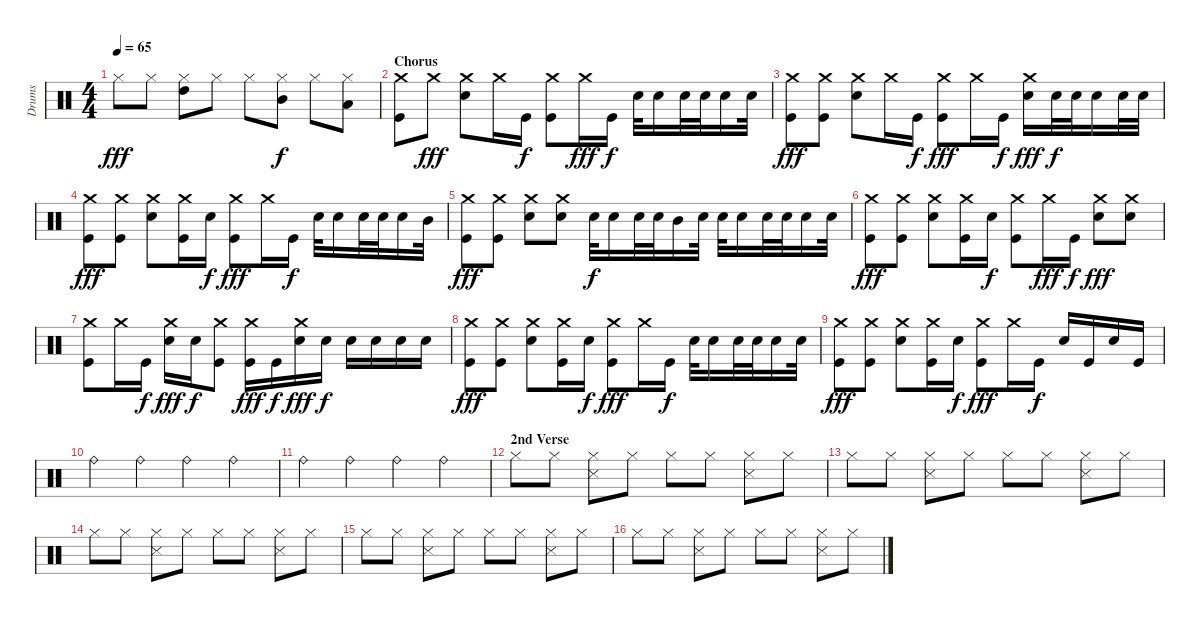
\track ("Drums" "Drums") {instrument percussion}
\staff {score}
\articulation defaults
\ts (4 4)
\tempo 65
\clef neutral
\ks c "Hi-Hat (closed)".8{dy fff} "Hi-Hat (closed)".8
("Hi-Hat (closed)" "High Tom (hit)").8 "Hi-Hat (closed)".8 "Hi-Hat (closed)".8 ("Hi-Hat (closed)" "Mid Tom (hit)").8{dy f} "Hi-Hat (closed)".8 ("Hi-Hat (closed)" "Low Tom (hit)").8 |
\section ("" "Chorus")
("Crash medium (hit)" "Kick (hit)").8 "Crash medium (hit)".8{dy fff} ("Crash medium (hit)" "Electric Snare (hit)").8 "Crash medium (hit)".16 "Kick (hit)".16{dy f} ("Crash medium (hit)" "Kick (hit)").8 "Crash medium (hit)".16{dy fff} "Kick (hit)".16{dy f} "Electric Snare (hit)".32 "Electric Snare (hit)".16 "Electric Snare (hit)".32 "Electric Snare (hit)".32 "Electric Snare (hit)".16 "Electric Snare (hit)".32 |
("Crash medium (hit)" "Kick (hit)").8{dy fff} ("Crash medium (hit)" "Kick (hit)").8 ("Crash medium (hit)" "Electric Snare (hit)").8 "Crash medium (hit)".16 "Kick (hit)".16{dy f} ("Crash medium (hit)" "Kick (hit)").8{dy fff} "Crash medium (hit)".16 "Kick (hit)".16{dy f} ("Crash medium (hit)" "Electric Snare (hit)").16{dy fff} "Electric Snare (hit)".32{dy f} "Electric Snare (hit)".32 "Electric Snare (hit)".16 "Electric Snare (hit)".32 "Electric Snare (hit)".32 |
("Crash medium (hit)" "Kick (hit)").8{dy fff} ("Crash medium (hit)" "Kick (hit)").8 ("Crash medium (hit)" "Electric Snare (hit)").8 ("Crash medium (hit)" "Kick (hit)").16 "Electric Snare (hit)".16{dy f} ("Crash medium (hit)" "Kick (hit)").8{dy fff} "Crash medium (hit)".16 "Kick (hit)".16{dy f} "Electric Snare (hit)".32 "Electric Snare (hit)".16 "Electric Snare (hit)".32 "Electric Snare (hit)".32 "Electric Snare (hit)".16 "Mid Tom (hit)".32 |
("Crash medium (hit)" "Kick (hit)").8{dy fff} ("Crash medium (hit)" "Kick (hit)").8 ("Crash medium (hit)" "Electric Snare (hit)").8 ("Crash medium (hit)" "Electric Snare (hit)").8 "Electric Snare (hit)".32{dy f} "Electric Snare (hit)".16 "Electric Snare (hit)".32 "Electric Snare (hit)".32 "Mid Tom (hit)".16 "Electric Snare (hit)".32 "Electric Snare (hit)".32 "Electric Snare (hit)".16 "Electric Snare (hit)".32 "Electric Snare (hit)".32 "Electric Snare (hit)".16 "Electric Snare (hit)".32 |
("Crash medium (hit)" "Kick (hit)").8{dy fff} ("Crash medium (hit)" "Kick (hit)").8 ("Crash medium (hit)" "Electric Snare (hit)").8 ("Crash medium (hit)" "Kick (hit)").16 "Electric Snare (hit)".16{dy f} ("Crash medium (hit)" "Kick (hit)").8 "Crash medium (hit)".16{dy fff} "Kick (hit)".16{dy f} ("Crash medium (hit)" "Electric Snare (hit)").8{dy fff} ("Crash medium (hit)" "Electric Snare (hit)").8 |
("Crash medium (hit)" "Kick (hit)").8 "Crash medium (hit)".16 "Kick (hit)".16{dy f} ("Crash medium (hit)" "Electric Snare (hit)").16{dy fff} "Electric Snare (hit)".16{dy f} ("Crash medium (hit)" "Kick (hit)").8 ("Crash medium (hit)" "Kick (hit)").16{dy fff} "Kick (hit)".16{dy f} ("Crash medium (hit)" "Electric Snare (hit)").16{dy fff} "Electric Snare (hit)".16{dy f} "Electric Snare (hit)".16 "Electric Snare (hit)".16 "Electric Snare (hit)".16 "Electric Snare (hit)".16 |
("Crash medium (hit)" "Kick (hit)").8{dy fff} ("Crash medium (hit)" "Kick (hit)").8 ("Crash medium (hit)" "Electric Snare (hit)").8 ("Crash medium (hit)" "Kick (hit)").16 "Electric Snare (hit)".16{dy f} ("Crash medium (hit)" "Kick (hit)").8{dy fff} "Crash medium (hit)".16 "Kick (hit)".16{dy f} "Electric Snare (hit)".32 "Electric Snare (hit)".16 "Electric Snare (hit)".32 "Electric Snare (hit)".32 "Electric Snare (hit)".16 "Electric Snare (hit)".32 |
("Crash medium (hit)" "Kick (hit)").8{dy fff} ("Crash medium (hit)" "Kick (hit)").8 ("Crash medium (hit)" "Electric Snare (hit)").8 ("Crash medium (hit)" "Kick (hit)").16 "Electric Snare (hit)".16{dy f} ("Crash medium (hit)" "Kick (hit)").8{dy fff} "Crash medium (hit)".16 "Kick (hit)".16{dy f} "Electric Snare (hit)".16 "Kick (hit)".16 "Electric Snare (hit)".16 "Kick (hit)".16 |
"Ride (bell)".4 "Ride (bell)".4 "Ride (bell)".4 "Ride (bell)".4 |
"Ride (bell)".4 "Ride (bell)".4 "Ride (bell)".4 "Ride (bell)".4 |
\section ("" "2nd Verse")
"Hi-Hat (closed)".8 "Hi-Hat (closed)".8 ("Hi-Hat (closed)" "Snare (side stick) 3").8 "Hi-Hat (closed)".8 "Hi-Hat (closed)".8 "Hi-Hat (closed)".8 ("Hi-Hat (closed)" "Snare (side stick) 3").8 "Hi-Hat (closed)".8 |
"Hi-Hat (closed)".8 "Hi-Hat (closed)".8 ("Hi-Hat (closed)" "Snare (side stick) 3").8 "Hi-Hat (closed)".8 "Hi-Hat (closed)".8 "Hi-Hat (closed)".8 ("Hi-Hat (closed)" "Snare (side stick) 3").8 "Hi-Hat (closed)".8 |
"Hi-Hat (closed)".8 "Hi-Hat (closed)".8 ("Hi-Hat (closed)" "Snare (side stick) 3").8 "Hi-Hat (closed)".8 "Hi-Hat (closed)".8 "Hi-Hat (closed)".8 ("Hi-Hat (closed)" "Snare (side stick) 3").8 "Hi-Hat (closed)".8 |
"Hi-Hat (closed)".8 "Hi-Hat (closed)".8 ("Hi-Hat (closed)" "Snare (side stick) 3").8 "Hi-Hat (closed)".8 "Hi-Hat (closed)".8 "Hi-Hat (closed)".8 ("Hi-Hat (closed)" "Snare (side stick) 3").8 "Hi-Hat (closed)".8 |
"Hi-Hat (closed)".8 "Hi-Hat (closed)".8 ("Hi-Hat (closed)" "Snare (side stick) 3").8 "Hi-Hat (closed)".8 "Hi-Hat (closed)".8 "Hi-Hat (closed)".8 ("Hi-Hat (closed)" "Snare (side stick) 3").8 "Hi-Hat (closed)".8
